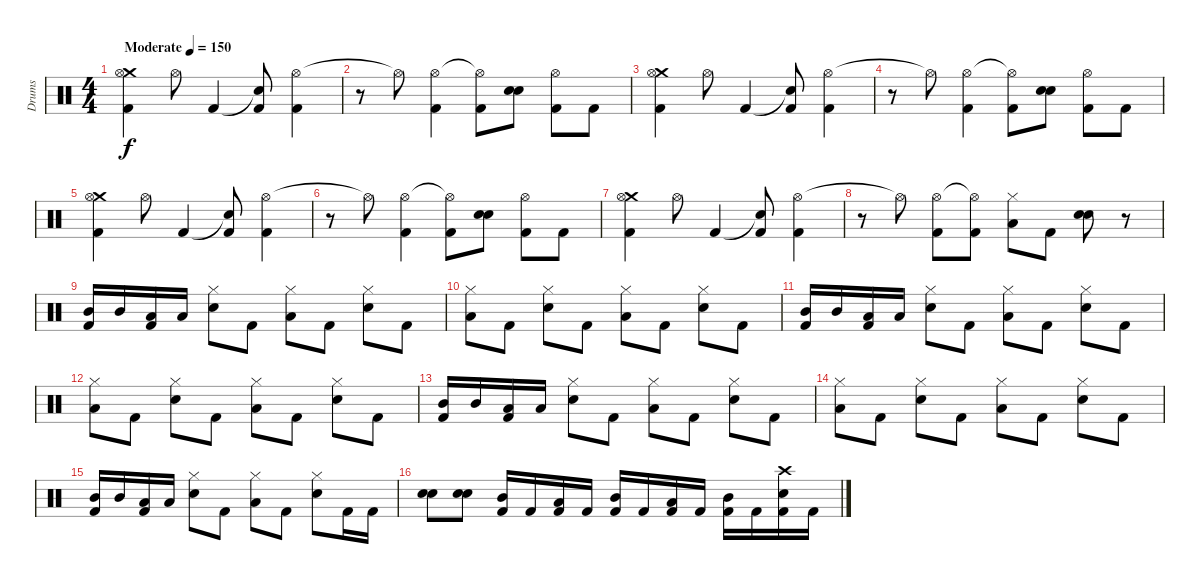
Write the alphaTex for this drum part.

\track ("Drums" "Drums") {instrument percussion}
\staff {score}
\articulation defaults
\ts (4 4)
\tempo (150 "Moderate")
\clef neutral
\ks c
("Crash medium (hit)" "Hi-Hat (open)" "Kick (hit) 2").4{dy f} "Hi-Hat (open)".8 "Kick (hit) 2".4 ("Snare (hit)"{t} "Kick (hit) 2").8 ("Hi-Hat (open)" "Kick (hit) 2").4 |
r.8 "Hi-Hat (open)"{t}.8 ("Hi-Hat (open)" "Kick (hit) 2").4 ("Hi-Hat (open)"{t} "Kick (hit) 2").8 ("Snare (hit) 2" "Snare (hit) 2").8 ("Hi-Hat (open)" "Kick (hit) 2").8 "Kick (hit) 2".8 |
("Crash medium (hit)" "Hi-Hat (open)" "Kick (hit) 2").4 "Hi-Hat (open)".8 "Kick (hit) 2".4 ("Snare (hit)"{t} "Kick (hit) 2").8 ("Hi-Hat (open)" "Kick (hit) 2").4 |
r.8 "Hi-Hat (open)"{t}.8 ("Hi-Hat (open)" "Kick (hit) 2").4 ("Hi-Hat (open)"{t} "Kick (hit) 2").8 ("Snare (hit) 2" "Snare (hit) 2").8 ("Hi-Hat (open)" "Kick (hit) 2").8 "Kick (hit) 2".8 |
("Crash medium (hit)" "Hi-Hat (open)" "Kick (hit) 2").4 "Hi-Hat (open)".8 "Kick (hit) 2".4 ("Snare (hit)"{t} "Kick (hit) 2").8 ("Hi-Hat (open)" "Kick (hit) 2").4 |
r.8 "Hi-Hat (open)"{t}.8 ("Hi-Hat (open)" "Kick (hit) 2").4 ("Hi-Hat (open)"{t} "Kick (hit) 2").8 ("Snare (hit) 2" "Snare (hit) 2").8 ("Hi-Hat (open)" "Kick (hit) 2").8 "Kick (hit) 2".8 |
("Crash medium (hit)" "Hi-Hat (open)" "Kick (hit) 2").4 "Hi-Hat (open)".8 "Kick (hit) 2".4 ("Snare (hit)"{t} "Kick (hit) 2").8 ("Hi-Hat (open)" "Kick (hit) 2").4 |
r.8 "Hi-Hat (open)"{t}.8 ("Hi-Hat (open)" "Kick (hit) 2").8 ("Hi-Hat (open)"{t} "Kick (hit) 2").8 ("Hi-Hat (closed)" "Low Floor Tom (hit)").8 "Kick (hit) 2".8 ("Snare (hit) 2" "Snare (hit) 2").8 r.8 |
("Mid Tom (hit)" "Kick (hit) 2").16 "Mid Tom (hit)".16 ("Low Floor Tom (hit)" "Kick (hit) 2").16 "Low Floor Tom (hit)".16 ("Hi-Hat (closed)" "Snare (hit) 2").8 "Kick (hit) 2".8 ("Hi-Hat (closed)" "Low Floor Tom (hit)").8 "Kick (hit) 2".8 ("Hi-Hat (closed)" "Snare (hit) 2").8 "Kick (hit) 2".8 |
("Hi-Hat (closed)" "Low Floor Tom (hit)").8 "Kick (hit) 2".8 ("Hi-Hat (closed)" "Snare (hit) 2").8 "Kick (hit) 2".8 ("Hi-Hat (closed)" "Low Floor Tom (hit)").8 "Kick (hit) 2".8 ("Hi-Hat (closed)" "Snare (hit) 2").8 "Kick (hit) 2".8 |
("Mid Tom (hit)" "Kick (hit) 2").16 "Mid Tom (hit)".16 ("Low Floor Tom (hit)" "Kick (hit) 2").16 "Low Floor Tom (hit)".16 ("Hi-Hat (closed)" "Snare (hit) 2").8 "Kick (hit) 2".8 ("Hi-Hat (closed)" "Low Floor Tom (hit)").8 "Kick (hit) 2".8 ("Hi-Hat (closed)" "Snare (hit) 2").8 "Kick (hit) 2".8 |
("Hi-Hat (closed)" "Low Floor Tom (hit)").8 "Kick (hit) 2".8 ("Hi-Hat (closed)" "Snare (hit) 2").8 "Kick (hit) 2".8 ("Hi-Hat (closed)" "Low Floor Tom (hit)").8 "Kick (hit) 2".8 ("Hi-Hat (closed)" "Snare (hit) 2").8 "Kick (hit) 2".8 |
("Mid Tom (hit)" "Kick (hit) 2").16 "Mid Tom (hit)".16 ("Low Floor Tom (hit)" "Kick (hit) 2").16 "Low Floor Tom (hit)".16 ("Hi-Hat (closed)" "Snare (hit) 2").8 "Kick (hit) 2".8 ("Hi-Hat (closed)" "Low Floor Tom (hit)").8 "Kick (hit) 2".8 ("Hi-Hat (closed)" "Snare (hit) 2").8 "Kick (hit) 2".8 |
("Hi-Hat (closed)" "Low Floor Tom (hit)").8 "Kick (hit) 2".8 ("Hi-Hat (closed)" "Snare (hit) 2").8 "Kick (hit) 2".8 ("Hi-Hat (closed)" "Low Floor Tom (hit)").8 "Kick (hit) 2".8 ("Hi-Hat (closed)" "Snare (hit) 2").8 "Kick (hit) 2".8 |
("Mid Tom (hit)" "Kick (hit) 2").16 "Mid Tom (hit)".16 ("Low Floor Tom (hit)" "Kick (hit) 2").16 "Low Floor Tom (hit)".16 ("Hi-Hat (closed)" "Snare (hit) 2").8 "Kick (hit) 2".8 ("Hi-Hat (closed)" "Low Floor Tom (hit)").8 "Kick (hit) 2".8 ("Hi-Hat (closed)" "Snare (hit) 2").8 "Kick (hit) 2".16 "Kick (hit) 2".16 |
("Snare (hit) 2" "Snare (hit) 2").8 ("Snare (hit) 2" "Snare (hit) 2").8 ("Mid Tom (hit)" "Kick (hit) 2").16 "Kick (hit) 2".16 ("Low Floor Tom (hit)" "Kick (hit) 2").16 "Kick (hit) 2".16 ("Mid Tom (hit)" "Kick (hit) 2").16 "Kick (hit) 2".16 ("Low Floor Tom (hit)" "Kick (hit) 2").16 "Kick (hit) 2".16 ("Mid Tom (hit)" "Kick (hit) 2").16 "Kick (hit) 2".16 ("Crash high (hit)" "Snare (hit) 2" "Kick (hit) 2").16 "Kick (hit) 2".16
